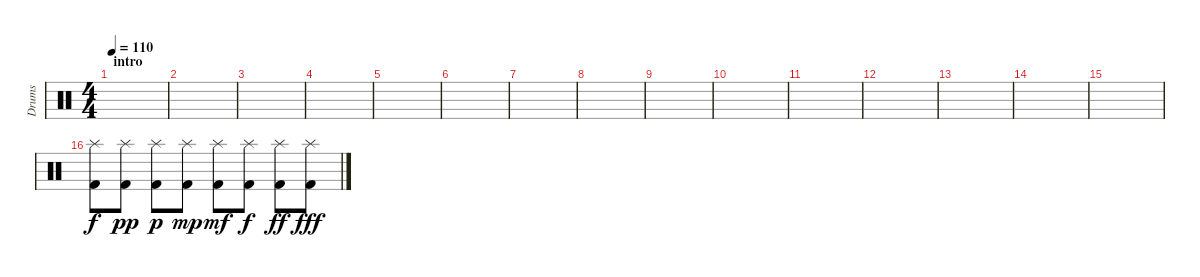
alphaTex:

\track ("Drums" "Drums") {instrument percussion}
\staff {score}
\articulation defaults
\ts (4 4)
\section ("" "intro")
\tempo 110
\clef neutral
\ks c
|
|
|
|
|
|
|
|
|
|
|
|
|
|
|
("Splash (hit)" "Kick (hit) 2").8 ("Splash (hit)" "Kick (hit) 2").8{dy pp} ("Splash (hit)" "Kick (hit) 2").8{dy p} ("Splash (hit)" "Kick (hit) 2").8{dy mp} ("Splash (hit)" "Kick (hit) 2").8{dy mf} ("Splash (hit)" "Kick (hit) 2").8{dy f} ("Splash (hit)" "Kick (hit) 2").8{dy ff} ("Splash (hit)" "Kick (hit) 2").8{dy fff}
